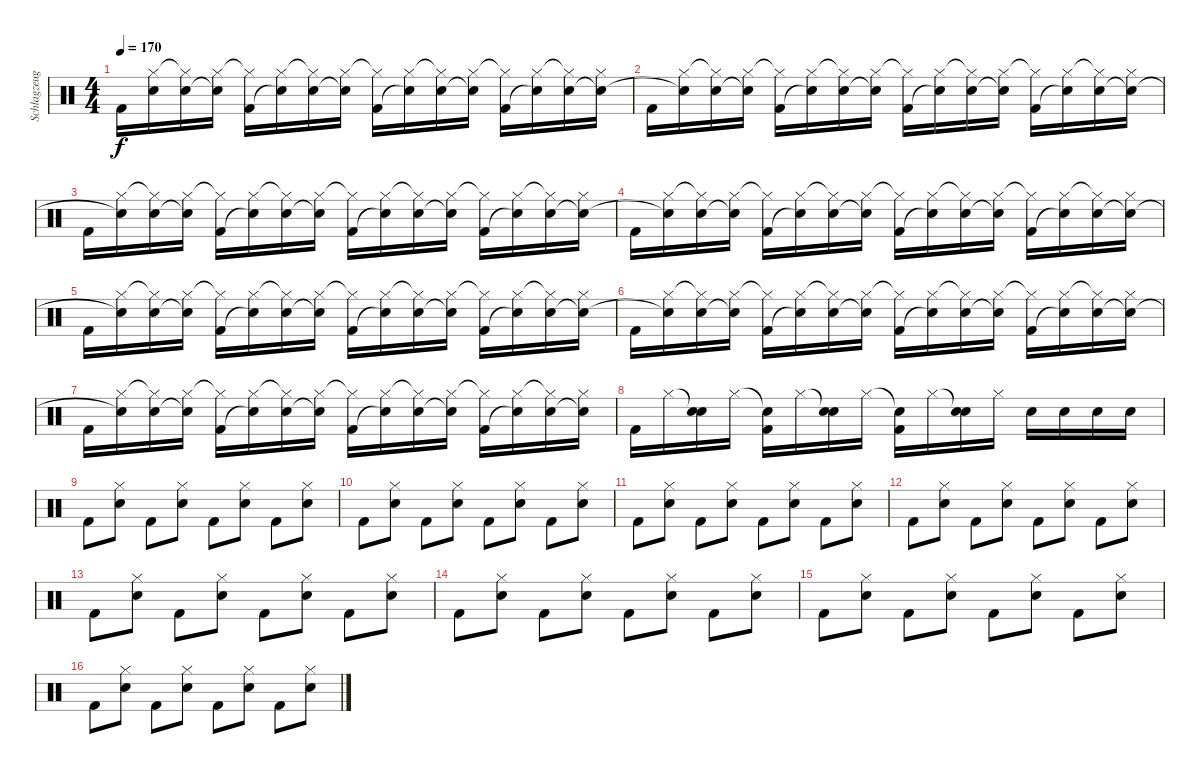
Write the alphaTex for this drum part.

\track ("Schlagzeug (Bela)" "Schlagzeug") {instrument percussion}
\staff {score}
\articulation defaults
\ts (4 4)
\tempo 170
\clef neutral
\ks c "Kick (hit) 2".16{dy f}
("Hi-Hat (closed)" "Snare (hit)"{t}).16 ("Hi-Hat (closed)"{t} "Snare (hit) 2").16 ("Hi-Hat (closed)" "Snare (hit)"{t}).16 ("Hi-Hat (closed)"{t} "Kick (hit) 2").16 ("Hi-Hat (closed)" "Snare (hit)"{t}).16 ("Hi-Hat (closed)"{t} "Snare (hit) 2").16 ("Hi-Hat (closed)" "Snare (hit)"{t}).16 ("Hi-Hat (closed)"{t} "Kick (hit) 2").16 ("Hi-Hat (closed)" "Snare (hit)"{t}).16 ("Hi-Hat (closed)"{t} "Snare (hit) 2").16 ("Hi-Hat (closed)" "Snare (hit)"{t}).16 ("Hi-Hat (closed)"{t} "Kick (hit) 2").16 ("Hi-Hat (closed)" "Snare (hit)"{t}).16 ("Hi-Hat (closed)"{t} "Snare (hit) 2").16 ("Hi-Hat (closed)" "Snare (hit)"{t}).16 |
"Kick (hit) 2".16 ("Hi-Hat (closed)" "Snare (hit)"{t}).16 ("Hi-Hat (closed)"{t} "Snare (hit) 2").16 ("Hi-Hat (closed)" "Snare (hit)"{t}).16 ("Hi-Hat (closed)"{t} "Kick (hit) 2").16 ("Hi-Hat (closed)" "Snare (hit)"{t}).16 ("Hi-Hat (closed)"{t} "Snare (hit) 2").16 ("Hi-Hat (closed)" "Snare (hit)"{t}).16 ("Hi-Hat (closed)"{t} "Kick (hit) 2").16 ("Hi-Hat (closed)" "Snare (hit)"{t}).16 ("Hi-Hat (closed)"{t} "Snare (hit) 2").16 ("Hi-Hat (closed)" "Snare (hit)"{t}).16 ("Hi-Hat (closed)"{t} "Kick (hit) 2").16 ("Hi-Hat (closed)" "Snare (hit)"{t}).16 ("Hi-Hat (closed)"{t} "Snare (hit) 2").16 ("Hi-Hat (closed)" "Snare (hit)"{t}).16 |
"Kick (hit) 2".16 ("Hi-Hat (closed)" "Snare (hit)"{t}).16 ("Hi-Hat (closed)"{t} "Snare (hit) 2").16 ("Hi-Hat (closed)" "Snare (hit)"{t}).16 ("Hi-Hat (closed)"{t} "Kick (hit) 2").16 ("Hi-Hat (closed)" "Snare (hit)"{t}).16 ("Hi-Hat (closed)"{t} "Snare (hit) 2").16 ("Hi-Hat (closed)" "Snare (hit)"{t}).16 ("Hi-Hat (closed)"{t} "Kick (hit) 2").16 ("Hi-Hat (closed)" "Snare (hit)"{t}).16 ("Hi-Hat (closed)"{t} "Snare (hit) 2").16 ("Hi-Hat (closed)" "Snare (hit)"{t}).16 ("Hi-Hat (closed)"{t} "Kick (hit) 2").16 ("Hi-Hat (closed)" "Snare (hit)"{t}).16 ("Hi-Hat (closed)"{t} "Snare (hit) 2").16 ("Hi-Hat (closed)" "Snare (hit)"{t}).16 |
"Kick (hit) 2".16 ("Hi-Hat (closed)" "Snare (hit)"{t}).16 ("Hi-Hat (closed)"{t} "Snare (hit) 2").16 ("Hi-Hat (closed)" "Snare (hit)"{t}).16 ("Hi-Hat (closed)"{t} "Kick (hit) 2").16 ("Hi-Hat (closed)" "Snare (hit)"{t}).16 ("Hi-Hat (closed)"{t} "Snare (hit) 2").16 ("Hi-Hat (closed)" "Snare (hit)"{t}).16 ("Hi-Hat (closed)"{t} "Kick (hit) 2").16 ("Hi-Hat (closed)" "Snare (hit)"{t}).16 ("Hi-Hat (closed)"{t} "Snare (hit) 2").16 ("Hi-Hat (closed)" "Snare (hit)"{t}).16 ("Hi-Hat (closed)"{t} "Kick (hit) 2").16 ("Hi-Hat (closed)" "Snare (hit)"{t}).16 ("Hi-Hat (closed)"{t} "Snare (hit) 2").16 ("Hi-Hat (closed)" "Snare (hit)"{t}).16 |
"Kick (hit) 2".16 ("Hi-Hat (closed)" "Snare (hit)"{t}).16 ("Hi-Hat (closed)"{t} "Snare (hit) 2").16 ("Hi-Hat (closed)" "Snare (hit)"{t}).16 ("Hi-Hat (closed)"{t} "Kick (hit) 2").16 ("Hi-Hat (closed)" "Snare (hit)"{t}).16 ("Hi-Hat (closed)"{t} "Snare (hit) 2").16 ("Hi-Hat (closed)" "Snare (hit)"{t}).16 ("Hi-Hat (closed)"{t} "Kick (hit) 2").16 ("Hi-Hat (closed)" "Snare (hit)"{t}).16 ("Hi-Hat (closed)"{t} "Snare (hit) 2").16 ("Hi-Hat (closed)" "Snare (hit)"{t}).16 ("Hi-Hat (closed)"{t} "Kick (hit) 2").16 ("Hi-Hat (closed)" "Snare (hit)"{t}).16 ("Hi-Hat (closed)"{t} "Snare (hit) 2").16 ("Hi-Hat (closed)" "Snare (hit)"{t}).16 |
"Kick (hit) 2".16 ("Hi-Hat (closed)" "Snare (hit)"{t}).16 ("Hi-Hat (closed)"{t} "Snare (hit) 2").16 ("Hi-Hat (closed)" "Snare (hit)"{t}).16 ("Hi-Hat (closed)"{t} "Kick (hit) 2").16 ("Hi-Hat (closed)" "Snare (hit)"{t}).16 ("Hi-Hat (closed)"{t} "Snare (hit) 2").16 ("Hi-Hat (closed)" "Snare (hit)"{t}).16 ("Hi-Hat (closed)"{t} "Kick (hit) 2").16 ("Hi-Hat (closed)" "Snare (hit)"{t}).16 ("Hi-Hat (closed)"{t} "Snare (hit) 2").16 ("Hi-Hat (closed)" "Snare (hit)"{t}).16 ("Hi-Hat (closed)"{t} "Kick (hit) 2").16 ("Hi-Hat (closed)" "Snare (hit)"{t}).16 ("Hi-Hat (closed)"{t} "Snare (hit) 2").16 ("Hi-Hat (closed)" "Snare (hit)"{t}).16 |
"Kick (hit) 2".16 ("Hi-Hat (closed)" "Snare (hit)"{t}).16 ("Hi-Hat (closed)"{t} "Snare (hit) 2").16 ("Hi-Hat (closed)" "Snare (hit)"{t}).16 ("Hi-Hat (closed)"{t} "Kick (hit) 2").16 ("Hi-Hat (closed)" "Snare (hit)"{t}).16 ("Hi-Hat (closed)"{t} "Snare (hit) 2").16 ("Hi-Hat (closed)" "Snare (hit)"{t}).16 ("Hi-Hat (closed)"{t} "Kick (hit) 2").16 ("Hi-Hat (closed)" "Snare (hit)"{t}).16 ("Hi-Hat (closed)"{t} "Snare (hit) 2").16 ("Hi-Hat (closed)" "Snare (hit)"{t}).16 ("Hi-Hat (closed)"{t} "Kick (hit) 2").16 ("Hi-Hat (closed)" "Snare (hit)"{t}).16 ("Hi-Hat (closed)"{t} "Snare (hit) 2").16 ("Hi-Hat (closed)" "Snare (hit)"{t}).16 |
"Kick (hit) 2".16 "Hi-Hat (closed)".16 ("Snare (hit)"{t} "Snare (hit) 2").16 "Hi-Hat (closed)".16 ("Snare (hit)"{t} "Kick (hit) 2").16 "Hi-Hat (closed)".16 ("Snare (hit)"{t} "Snare (hit) 2").16 "Hi-Hat (closed)".16 ("Snare (hit)"{t} "Kick (hit) 2").16 "Hi-Hat (closed)".16 ("Snare (hit)"{t} "Snare (hit) 2").16 "Hi-Hat (closed)".16 "Snare (hit) 2".16 "Snare (hit) 2".16 "Snare (hit) 2".16 "Snare (hit) 2".16 |
"Kick (hit) 2".8 ("Hi-Hat (closed)" "Snare (hit) 2").8 "Kick (hit) 2".8 ("Hi-Hat (closed)" "Snare (hit) 2").8 "Kick (hit) 2".8 ("Hi-Hat (closed)" "Snare (hit) 2").8 "Kick (hit) 2".8 ("Hi-Hat (closed)" "Snare (hit) 2").8 |
"Kick (hit) 2".8 ("Hi-Hat (closed)" "Snare (hit) 2").8 "Kick (hit) 2".8 ("Hi-Hat (closed)" "Snare (hit) 2").8 "Kick (hit) 2".8 ("Hi-Hat (closed)" "Snare (hit) 2").8 "Kick (hit) 2".8 ("Hi-Hat (closed)" "Snare (hit) 2").8 |
"Kick (hit) 2".8 ("Hi-Hat (closed)" "Snare (hit) 2").8 "Kick (hit) 2".8 ("Hi-Hat (closed)" "Snare (hit) 2").8 "Kick (hit) 2".8 ("Hi-Hat (closed)" "Snare (hit) 2").8 "Kick (hit) 2".8 ("Hi-Hat (closed)" "Snare (hit) 2").8 |
"Kick (hit) 2".8 ("Hi-Hat (closed)" "Snare (hit) 2").8 "Kick (hit) 2".8 ("Hi-Hat (closed)" "Snare (hit) 2").8 "Kick (hit) 2".8 ("Hi-Hat (closed)" "Snare (hit) 2").8 "Kick (hit) 2".8 ("Hi-Hat (closed)" "Snare (hit) 2").8 |
"Kick (hit) 2".8 ("Hi-Hat (closed)" "Snare (hit) 2").8 "Kick (hit) 2".8 ("Hi-Hat (closed)" "Snare (hit) 2").8 "Kick (hit) 2".8 ("Hi-Hat (closed)" "Snare (hit) 2").8 "Kick (hit) 2".8 ("Hi-Hat (closed)" "Snare (hit) 2").8 |
"Kick (hit) 2".8 ("Hi-Hat (closed)" "Snare (hit) 2").8 "Kick (hit) 2".8 ("Hi-Hat (closed)" "Snare (hit) 2").8 "Kick (hit) 2".8 ("Hi-Hat (closed)" "Snare (hit) 2").8 "Kick (hit) 2".8 ("Hi-Hat (closed)" "Snare (hit) 2").8 |
"Kick (hit) 2".8 ("Hi-Hat (closed)" "Snare (hit) 2").8 "Kick (hit) 2".8 ("Hi-Hat (closed)" "Snare (hit) 2").8 "Kick (hit) 2".8 ("Hi-Hat (closed)" "Snare (hit) 2").8 "Kick (hit) 2".8 ("Hi-Hat (closed)" "Snare (hit) 2").8 |
"Kick (hit) 2".8 ("Hi-Hat (closed)" "Snare (hit) 2").8 "Kick (hit) 2".8 ("Hi-Hat (closed)" "Snare (hit) 2").8 "Kick (hit) 2".8 ("Hi-Hat (closed)" "Snare (hit) 2").8 "Kick (hit) 2".8 ("Hi-Hat (closed)" "Snare (hit) 2").8
